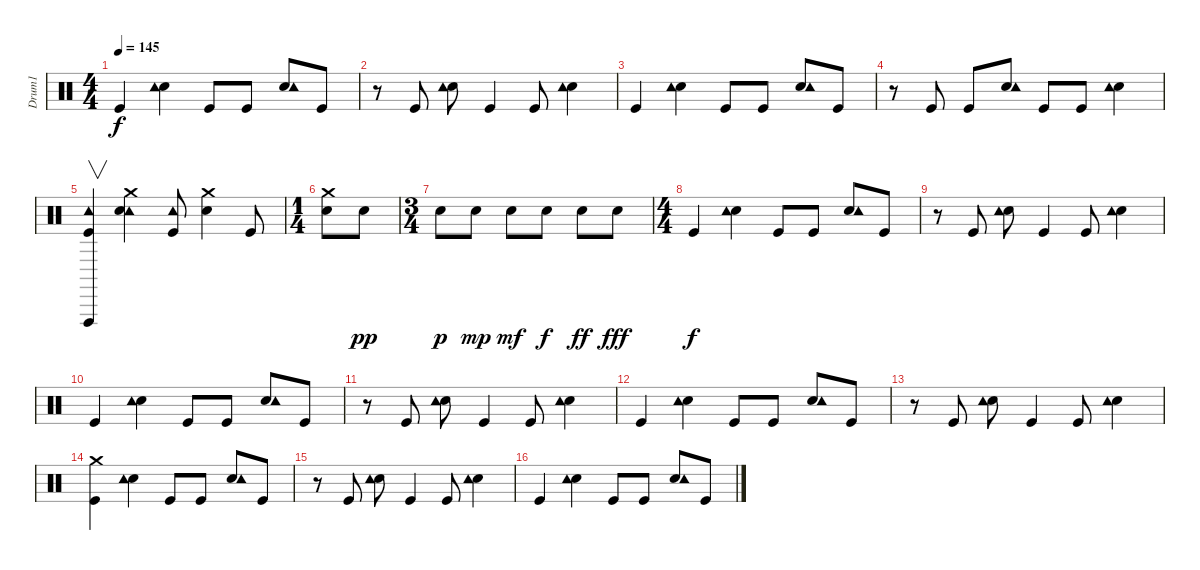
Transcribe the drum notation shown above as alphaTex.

\track ("Drum1" "Drum1") {instrument percussion}
\staff {score}
\articulation defaults
\ts (4 4)
\tempo 145
\clef neutral
\ks c "Kick (hit)".4{dy f}
("Snare (hit) 2" "Tambourine (hit)").4 "Kick (hit)".8 "Kick (hit)".8 ("Snare (hit) 2" "Tambourine (hit)").8 "Kick (hit)".8 |
r.8 "Kick (hit)".8 ("Snare (hit) 2" "Tambourine (hit)").8 "Kick (hit)".4 "Kick (hit)".8 ("Snare (hit) 2" "Tambourine (hit)").4 |
"Kick (hit)".4 ("Snare (hit) 2" "Tambourine (hit)").4 "Kick (hit)".8 "Kick (hit)".8 ("Snare (hit) 2" "Tambourine (hit)").8 "Kick (hit)".8 |
r.8 "Kick (hit)".8 "Kick (hit)".8 ("Snare (hit) 2" "Tambourine (hit)").8 "Kick (hit)".8 "Kick (hit)".8 ("Snare (hit) 2" "Tambourine (hit)").4 |
("Tambourine (hit)" "Kick (hit)" "Vibraslap (hit)").4{v} ("Tambourine (hit)" "Snare (hit) 2" "Crash medium (hit)").4 ("Tambourine (hit)" "Kick (hit)").8 ("Snare (hit) 2" "Crash medium (hit)").4 "Kick (hit)".8 |
\ts (1 4)
("Snare (hit) 2" "Crash medium (hit)").8 "Snare (hit) 2".8{dy pp} |
\ts (3 4)
"Snare (hit) 2".8{dy p} "Snare (hit) 2".8{dy mp} "Snare (hit) 2".8{dy mf} "Snare (hit) 2".8{dy f} "Snare (hit) 2".8{dy ff} "Snare (hit) 2".8{dy fff} |
\ts (4 4)
"Kick (hit)".4{dy f} ("Snare (hit) 2" "Tambourine (hit)").4 "Kick (hit)".8 "Kick (hit)".8 ("Snare (hit) 2" "Tambourine (hit)").8 "Kick (hit)".8 |
r.8 "Kick (hit)".8 ("Snare (hit) 2" "Tambourine (hit)").8 "Kick (hit)".4 "Kick (hit)".8 ("Snare (hit) 2" "Tambourine (hit)").4 |
"Kick (hit)".4 ("Snare (hit) 2" "Tambourine (hit)").4 "Kick (hit)".8 "Kick (hit)".8 ("Snare (hit) 2" "Tambourine (hit)").8 "Kick (hit)".8 |
r.8 "Kick (hit)".8 ("Snare (hit) 2" "Tambourine (hit)").8 "Kick (hit)".4 "Kick (hit)".8 ("Snare (hit) 2" "Tambourine (hit)").4 |
"Kick (hit)".4 ("Snare (hit) 2" "Tambourine (hit)").4 "Kick (hit)".8 "Kick (hit)".8 ("Snare (hit) 2" "Tambourine (hit)").8 "Kick (hit)".8 |
r.8 "Kick (hit)".8 ("Snare (hit) 2" "Tambourine (hit)").8 "Kick (hit)".4 "Kick (hit)".8 ("Snare (hit) 2" "Tambourine (hit)").4 |
("Kick (hit)" "Crash medium (hit)").4 ("Snare (hit) 2" "Tambourine (hit)").4 "Kick (hit)".8 "Kick (hit)".8 ("Snare (hit) 2" "Tambourine (hit)").8 "Kick (hit)".8 |
r.8 "Kick (hit)".8 ("Snare (hit) 2" "Tambourine (hit)").8 "Kick (hit)".4 "Kick (hit)".8 ("Snare (hit) 2" "Tambourine (hit)").4 |
"Kick (hit)".4 ("Snare (hit) 2" "Tambourine (hit)").4 "Kick (hit)".8 "Kick (hit)".8 ("Snare (hit) 2" "Tambourine (hit)").8 "Kick (hit)".8
